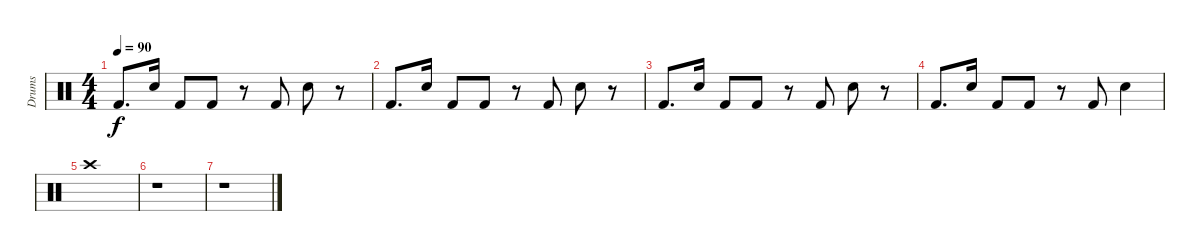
\track ("Drums" "Drums") {instrument percussion}
\staff {score}
\articulation defaults
\ts (4 4)
\tempo 90
\clef neutral
\ks c "Kick (hit) 2".8{d dy f} "Hand Clap (hit)".16 "Kick (hit) 2".8 "Kick (hit) 2".8
r.8 "Kick (hit) 2".8 "Hand Clap (hit)".8 r.8 |
"Kick (hit) 2".8{d} "Hand Clap (hit)".16 "Kick (hit) 2".8 "Kick (hit) 2".8 r.8 "Kick (hit) 2".8 "Hand Clap (hit)".8 r.8 |
"Kick (hit) 2".8{d} "Hand Clap (hit)".16 "Kick (hit) 2".8 "Kick (hit) 2".8 r.8 "Kick (hit) 2".8 "Hand Clap (hit)".8 r.8 |
"Kick (hit) 2".8{d} "Hand Clap (hit)".16 "Kick (hit) 2".8 "Kick (hit) 2".8 r.8 "Kick (hit) 2".8 "Hand Clap (hit)".4 |
"Crash high (hit)".1 |
r.1 |
r.1
